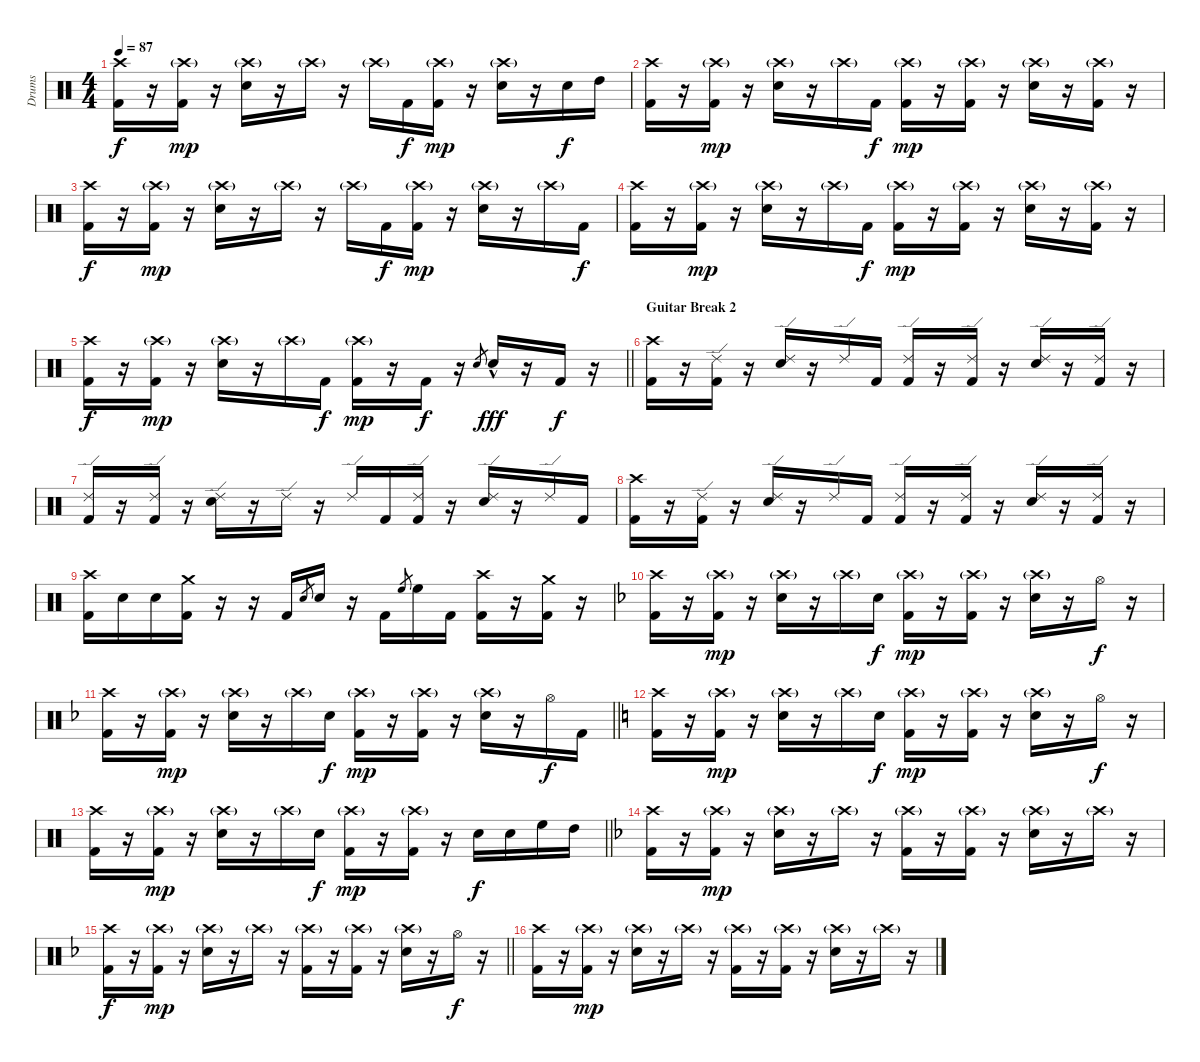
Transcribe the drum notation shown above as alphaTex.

\track ("Drums" "Drums") {instrument percussion}
\staff {score}
\articulation defaults
\ts (4 4)
\tempo 87
\clef neutral
\ks c
("Crash high (hit)" "Kick (hit) 2").16{dy f} r.16 ("Crash high (hit)"{g} "Kick (hit) 2").16{dy mp} r.16 ("Crash high (hit)"{g} "Snare (hit) 2").16 r.16 "Crash high (hit)"{g}.16 r.16 "Crash high (hit)"{g}.16 "Kick (hit) 2".16{dy f} ("Crash high (hit)"{g} "Kick (hit) 2").16{dy mp} r.16 ("Crash high (hit)"{g} "Snare (hit) 2").16 r.16 "Snare (hit) 2".16{dy f} "High Tom (hit)".16 |
("Crash high (hit)" "Kick (hit) 2").16 r.16 ("Crash high (hit)"{g} "Kick (hit) 2").16{dy mp} r.16 ("Crash high (hit)"{g} "Snare (hit) 2").16 r.16 "Crash high (hit)"{g}.16 "Kick (hit) 2".16{dy f} ("Crash high (hit)"{g} "Kick (hit) 2").16{dy mp} r.16 ("Crash high (hit)"{g} "Kick (hit) 2").16 r.16 ("Crash high (hit)"{g} "Snare (hit) 2").16 r.16 ("Crash high (hit)"{g} "Kick (hit) 2").16 r.16 |
("Crash high (hit)" "Kick (hit) 2").16{dy f} r.16 ("Crash high (hit)"{g} "Kick (hit) 2").16{dy mp} r.16 ("Crash high (hit)"{g} "Snare (hit) 2").16 r.16 "Crash high (hit)"{g}.16 r.16 "Crash high (hit)"{g}.16 "Kick (hit) 2".16{dy f} ("Crash high (hit)"{g} "Kick (hit) 2").16{dy mp} r.16 ("Crash high (hit)"{g} "Snare (hit) 2").16 r.16 "Crash high (hit)"{g}.16 "Kick (hit) 2".16{dy f} |
("Crash high (hit)" "Kick (hit) 2").16 r.16 ("Crash high (hit)"{g} "Kick (hit) 2").16{dy mp} r.16 ("Crash high (hit)"{g} "Snare (hit) 2").16 r.16 "Crash high (hit)"{g}.16 "Kick (hit) 2".16{dy f} ("Crash high (hit)"{g} "Kick (hit) 2").16{dy mp} r.16 ("Crash high (hit)"{g} "Kick (hit) 2").16 r.16 ("Crash high (hit)"{g} "Snare (hit) 2").16 r.16 ("Crash high (hit)"{g} "Kick (hit) 2").16 r.16 |
\barLineRight lightlight
("Crash high (hit)" "Kick (hit) 2").16{dy f} r.16 ("Crash high (hit)"{g} "Kick (hit) 2").16{dy mp} r.16 ("Crash high (hit)"{g} "Snare (hit) 2").16 r.16 "Crash high (hit)"{g}.16 "Kick (hit) 2".16{dy f} ("Crash high (hit)"{g} "Kick (hit) 2").16{dy mp} r.16 "Kick (hit) 2".16{dy f} r.16 "Snare (hit) 2".8{gr} "Snare (hit) 2"{hac}.16{dy fff} r.16 "Kick (hit) 2".16{dy f} r.16 |
\section ("" "Guitar Break 2")
("Crash high (hit)" "Kick (hit) 2").16 r.16 ("Ride (edge) 2" "Kick (hit) 2").16 r.16 ("Ride (edge) 2" "Snare (hit) 2").16 r.16 "Ride (edge) 2".16 "Kick (hit) 2".16 ("Ride (edge) 2" "Kick (hit) 2").16 r.16 ("Ride (edge) 2" "Kick (hit) 2").16 r.16 ("Ride (edge) 2" "Snare (hit) 2").16 r.16 ("Ride (edge) 2" "Kick (hit) 2").16 r.16 |
("Ride (edge) 2" "Kick (hit) 2").16 r.16 ("Ride (edge) 2" "Kick (hit) 2").16 r.16 ("Ride (edge) 2" "Snare (hit) 2").16 r.16 "Ride (edge) 2".16 r.16 "Ride (edge) 2".16 "Kick (hit) 2".16 ("Ride (edge) 2" "Kick (hit) 2").16 r.16 ("Ride (edge) 2" "Snare (hit) 2").16 r.16 "Ride (edge) 2".16 "Kick (hit) 2".16 |
("Crash high (hit)" "Kick (hit) 2").16 r.16 ("Ride (edge) 2" "Kick (hit) 2").16 r.16 ("Ride (edge) 2" "Snare (hit) 2").16 r.16 "Ride (edge) 2".16 "Kick (hit) 2".16 ("Ride (edge) 2" "Kick (hit) 2").16 r.16 ("Ride (edge) 2" "Kick (hit) 2").16 r.16 ("Ride (edge) 2" "Snare (hit) 2").16 r.16 ("Ride (edge) 2" "Kick (hit) 2").16 r.16 |
("Crash high (hit)" "Kick (hit) 2").16 "Snare (hit) 2".16 "Snare (hit) 2".16 ("Crash medium (hit)" "Kick (hit) 2").16 r.16 r.16 "Kick (hit) 2".16 "Snare (hit) 2".8{gr} "Snare (hit) 2".16 r.16 "Kick (hit) 2".16 "High Floor Tom (hit)".8{gr} "High Floor Tom (hit)".16 "Kick (hit) 2".16 ("Crash high (hit)" "Kick (hit) 2").16 r.16 ("Crash medium (hit)" "Kick (hit) 2").16 r.16 |
\ks f
("Crash high (hit)" "Kick (hit) 2").16 r.16 ("Crash high (hit)"{g} "Kick (hit) 2").16{dy mp} r.16 ("Crash high (hit)"{g} "Snare (hit) 2").16 r.16 "Crash high (hit)"{g}.16 "Snare (hit) 2".16{dy f} ("Crash high (hit)"{g} "Kick (hit) 2").16{dy mp} r.16 ("Crash high (hit)"{g} "Kick (hit) 2").16 r.16 ("Crash high (hit)"{g} "Snare (hit) 2").16 r.16 "Hi-Hat (open)".16{dy f} r.16 |
\barLineRight lightlight
("Crash high (hit)" "Kick (hit) 2").16 r.16 ("Crash high (hit)"{g} "Kick (hit) 2").16{dy mp} r.16 ("Crash high (hit)"{g} "Snare (hit) 2").16 r.16 "Crash high (hit)"{g}.16 "Snare (hit) 2".16{dy f} ("Crash high (hit)"{g} "Kick (hit) 2").16{dy mp} r.16 ("Crash high (hit)"{g} "Kick (hit) 2").16 r.16 ("Crash high (hit)"{g} "Snare (hit) 2").16 r.16 "Hi-Hat (open)".16{dy f} "Kick (hit) 2".16 |
\ks c
("Crash high (hit)" "Kick (hit) 2").16 r.16 ("Crash high (hit)"{g} "Kick (hit) 2").16{dy mp} r.16 ("Crash high (hit)"{g} "Snare (hit) 2").16 r.16 "Crash high (hit)"{g}.16 "Snare (hit) 2".16{dy f} ("Crash high (hit)"{g} "Kick (hit) 2").16{dy mp} r.16 ("Crash high (hit)"{g} "Kick (hit) 2").16 r.16 ("Crash high (hit)"{g} "Snare (hit) 2").16 r.16 "Hi-Hat (open)".16{dy f} r.16 |
\barLineRight lightlight
("Crash high (hit)" "Kick (hit) 2").16 r.16 ("Crash high (hit)"{g} "Kick (hit) 2").16{dy mp} r.16 ("Crash high (hit)"{g} "Snare (hit) 2").16 r.16 "Crash high (hit)"{g}.16 "Snare (hit) 2".16{dy f} ("Crash high (hit)"{g} "Kick (hit) 2").16{dy mp} r.16 ("Crash high (hit)"{g} "Kick (hit) 2").16 r.16 "Snare (hit) 2".16{dy f} "Snare (hit) 2".16 "High Floor Tom (hit)".16 "High Tom (hit)".16 |
\ks f
("Crash high (hit)" "Kick (hit) 2").16 r.16 ("Crash high (hit)"{g} "Kick (hit) 2").16{dy mp} r.16 ("Crash high (hit)"{g} "Snare (hit) 2").16 r.16 "Crash high (hit)"{g}.16 r.16 ("Crash high (hit)"{g} "Kick (hit) 2").16 r.16 ("Crash high (hit)"{g} "Kick (hit) 2").16 r.16 ("Crash high (hit)"{g} "Snare (hit) 2").16 r.16 "Crash high (hit)"{g}.16 r.16 |
\barLineRight lightlight
("Crash high (hit)" "Kick (hit) 2").16{dy f} r.16 ("Crash high (hit)"{g} "Kick (hit) 2").16{dy mp} r.16 ("Crash high (hit)"{g} "Snare (hit) 2").16 r.16 "Crash high (hit)"{g}.16 r.16 ("Crash high (hit)"{g} "Kick (hit) 2").16 r.16 ("Crash high (hit)"{g} "Kick (hit) 2").16 r.16 ("Crash high (hit)"{g} "Snare (hit) 2").16 r.16 "Hi-Hat (open)".16{dy f} r.16 |
("Crash high (hit)" "Kick (hit) 2").16 r.16 ("Crash high (hit)"{g} "Kick (hit) 2").16{dy mp} r.16 ("Crash high (hit)"{g} "Snare (hit) 2").16 r.16 "Crash high (hit)"{g}.16 r.16 ("Crash high (hit)"{g} "Kick (hit) 2").16 r.16 ("Crash high (hit)"{g} "Kick (hit) 2").16 r.16 ("Crash high (hit)"{g} "Snare (hit) 2").16 r.16 "Crash high (hit)"{g}.16 r.16
